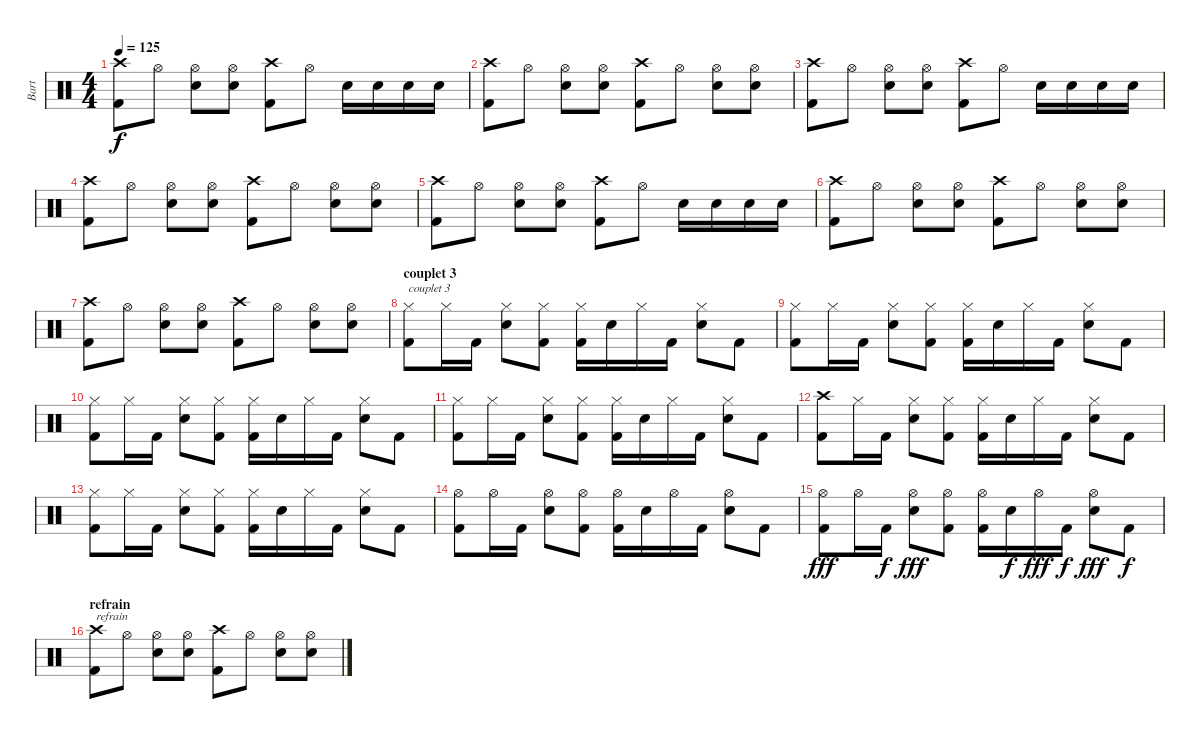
\track ("Bart" "Bart") {instrument percussion}
\staff {score}
\articulation defaults
\ts (4 4)
\tempo 125
\clef neutral
\ks c
("Crash high (hit)" "Kick (hit) 2").8{dy f} "Hi-Hat (open)".8 ("Hi-Hat (open)" "Snare (hit) 2").8 ("Hi-Hat (open)" "Snare (hit) 2").8 ("Crash high (hit)" "Kick (hit) 2").8 "Hi-Hat (open)".8 "Snare (hit) 2".16 "Snare (hit) 2".16 "Snare (hit) 2".16 "Snare (hit) 2".16 |
("Crash high (hit)" "Kick (hit) 2").8 "Hi-Hat (open)".8 ("Hi-Hat (open)" "Snare (hit) 2").8 ("Hi-Hat (open)" "Snare (hit) 2").8 ("Crash high (hit)" "Kick (hit) 2").8 "Hi-Hat (open)".8 ("Hi-Hat (open)" "Snare (hit) 2").8 ("Hi-Hat (open)" "Snare (hit) 2").8 |
("Crash high (hit)" "Kick (hit) 2").8 "Hi-Hat (open)".8 ("Hi-Hat (open)" "Snare (hit) 2").8 ("Hi-Hat (open)" "Snare (hit) 2").8 ("Crash high (hit)" "Kick (hit) 2").8 "Hi-Hat (open)".8 "Snare (hit) 2".16 "Snare (hit) 2".16 "Snare (hit) 2".16 "Snare (hit) 2".16 |
("Crash high (hit)" "Kick (hit) 2").8 "Hi-Hat (open)".8 ("Hi-Hat (open)" "Snare (hit) 2").8 ("Hi-Hat (open)" "Snare (hit) 2").8 ("Crash high (hit)" "Kick (hit) 2").8 "Hi-Hat (open)".8 ("Hi-Hat (open)" "Snare (hit) 2").8 ("Hi-Hat (open)" "Snare (hit) 2").8 |
("Crash high (hit)" "Kick (hit) 2").8 "Hi-Hat (open)".8 ("Hi-Hat (open)" "Snare (hit) 2").8 ("Hi-Hat (open)" "Snare (hit) 2").8 ("Crash high (hit)" "Kick (hit) 2").8 "Hi-Hat (open)".8 "Snare (hit) 2".16 "Snare (hit) 2".16 "Snare (hit) 2".16 "Snare (hit) 2".16 |
("Crash high (hit)" "Kick (hit) 2").8 "Hi-Hat (open)".8 ("Hi-Hat (open)" "Snare (hit) 2").8 ("Hi-Hat (open)" "Snare (hit) 2").8 ("Crash high (hit)" "Kick (hit) 2").8 "Hi-Hat (open)".8 ("Hi-Hat (open)" "Snare (hit) 2").8 ("Hi-Hat (open)" "Snare (hit) 2").8 |
("Crash high (hit)" "Kick (hit) 2").8 "Hi-Hat (open)".8 ("Hi-Hat (open)" "Snare (hit) 2").8 ("Hi-Hat (open)" "Snare (hit) 2").8 ("Crash high (hit)" "Kick (hit) 2").8 "Hi-Hat (open)".8 ("Hi-Hat (open)" "Snare (hit) 2").8 ("Hi-Hat (open)" "Snare (hit) 2").8 |
\section ("" "couplet 3")
("Hi-Hat (closed)" "Kick (hit) 2").8{txt "couplet 3"} "Hi-Hat (closed)".16 "Kick (hit) 2".16 ("Hi-Hat (closed)" "Snare (hit) 2").8 ("Hi-Hat (closed)" "Kick (hit) 2").8 ("Hi-Hat (closed)" "Kick (hit) 2").16 "Snare (hit) 2".16 "Hi-Hat (closed)".16 "Kick (hit) 2".16 ("Hi-Hat (closed)" "Snare (hit) 2").8 "Kick (hit) 2".8 |
("Hi-Hat (closed)" "Kick (hit) 2").8 "Hi-Hat (closed)".16 "Kick (hit) 2".16 ("Hi-Hat (closed)" "Snare (hit) 2").8 ("Hi-Hat (closed)" "Kick (hit) 2").8 ("Hi-Hat (closed)" "Kick (hit) 2").16 "Snare (hit) 2".16 "Hi-Hat (closed)".16 "Kick (hit) 2".16 ("Hi-Hat (closed)" "Snare (hit) 2").8 "Kick (hit) 2".8 |
("Hi-Hat (closed)" "Kick (hit) 2").8 "Hi-Hat (closed)".16 "Kick (hit) 2".16 ("Hi-Hat (closed)" "Snare (hit) 2").8 ("Hi-Hat (closed)" "Kick (hit) 2").8 ("Hi-Hat (closed)" "Kick (hit) 2").16 "Snare (hit) 2".16 "Hi-Hat (closed)".16 "Kick (hit) 2".16 ("Hi-Hat (closed)" "Snare (hit) 2").8 "Kick (hit) 2".8 |
("Hi-Hat (closed)" "Kick (hit) 2").8 "Hi-Hat (closed)".16 "Kick (hit) 2".16 ("Hi-Hat (closed)" "Snare (hit) 2").8 ("Hi-Hat (closed)" "Kick (hit) 2").8 ("Hi-Hat (closed)" "Kick (hit) 2").16 "Snare (hit) 2".16 "Hi-Hat (closed)".16 "Kick (hit) 2".16 ("Hi-Hat (closed)" "Snare (hit) 2").8 "Kick (hit) 2".8 |
("Crash high (hit)" "Kick (hit) 2").8 "Hi-Hat (closed)".16 "Kick (hit) 2".16 ("Hi-Hat (closed)" "Snare (hit) 2").8 ("Hi-Hat (closed)" "Kick (hit) 2").8 ("Hi-Hat (closed)" "Kick (hit) 2").16 "Snare (hit) 2".16 "Hi-Hat (closed)".16 "Kick (hit) 2".16 ("Hi-Hat (closed)" "Snare (hit) 2").8 "Kick (hit) 2".8 |
("Hi-Hat (closed)" "Kick (hit) 2").8 "Hi-Hat (closed)".16 "Kick (hit) 2".16 ("Hi-Hat (closed)" "Snare (hit) 2").8 ("Hi-Hat (closed)" "Kick (hit) 2").8 ("Hi-Hat (closed)" "Kick (hit) 2").16 "Snare (hit) 2".16 "Hi-Hat (closed)".16 "Kick (hit) 2".16 ("Hi-Hat (closed)" "Snare (hit) 2").8 "Kick (hit) 2".8 |
("Hi-Hat (open)" "Kick (hit) 2").8 "Hi-Hat (open)".16 "Kick (hit) 2".16 ("Hi-Hat (open)" "Snare (hit) 2").8 ("Hi-Hat (open)" "Kick (hit) 2").8 ("Hi-Hat (open)" "Kick (hit) 2").16 "Snare (hit) 2".16 "Hi-Hat (open)".16 "Kick (hit) 2".16 ("Hi-Hat (open)" "Snare (hit) 2").8 "Kick (hit) 2".8 |
("Hi-Hat (open)" "Kick (hit) 2").8{dy fff} "Hi-Hat (open)".16 "Kick (hit) 2".16{dy f} ("Hi-Hat (open)" "Snare (hit) 2").8{dy fff} ("Hi-Hat (open)" "Kick (hit) 2").8 ("Hi-Hat (open)" "Kick (hit) 2").16 "Snare (hit) 2".16{dy f} "Hi-Hat (open)".16{dy fff} "Kick (hit) 2".16{dy f} ("Hi-Hat (open)" "Snare (hit) 2").8{dy fff} "Kick (hit) 2".8{dy f} |
\section ("" "refrain")
("Crash high (hit)" "Kick (hit) 2").8{txt "refrain"} "Hi-Hat (open)".8 ("Hi-Hat (open)" "Snare (hit) 2").8 ("Hi-Hat (open)" "Snare (hit) 2").8 ("Crash high (hit)" "Kick (hit) 2").8 "Hi-Hat (open)".8 ("Hi-Hat (open)" "Snare (hit) 2").8 ("Hi-Hat (open)" "Snare (hit) 2").8
